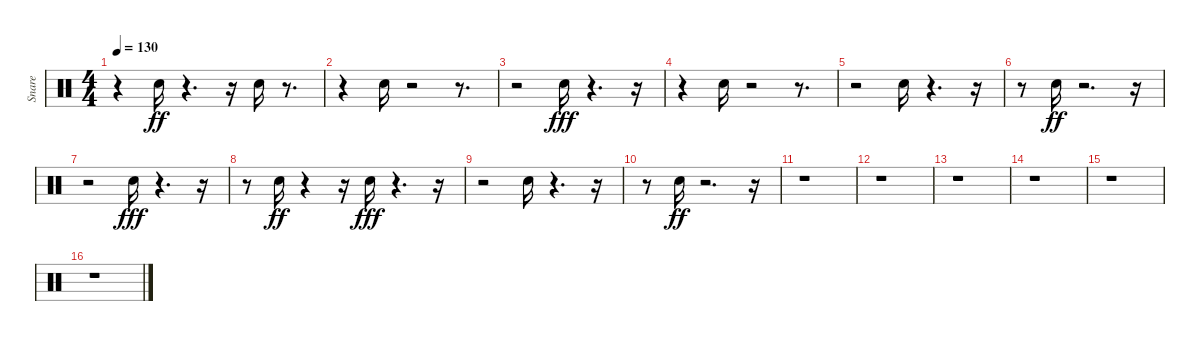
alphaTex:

\track ("Snare" "Snare") {instrument percussion}
\staff {score}
\articulation defaults
\ts (4 4)
\tempo 130
\clef neutral
\ks c
r.4{dy ff} "Snare (hit) 2".16 r.4{d} r.16 "Snare (hit) 2".16 r.8{d} |
r.4 "Snare (hit) 2".16 r.2 r.8{d} |
r.2 "Snare (hit) 2".16{dy fff} r.4{d} r.16 |
r.4 "Snare (hit) 2".16 r.2 r.8{d} |
r.2 "Snare (hit) 2".16 r.4{d} r.16 |
r.8 "Snare (hit) 2".16{dy ff} r.2{d} r.16 |
r.2 "Snare (hit) 2".16{dy fff} r.4{d} r.16 |
r.8 "Snare (hit) 2".16{dy ff} r.4 r.16 "Snare (hit) 2".16{dy fff} r.4{d} r.16 |
r.2 "Snare (hit) 2".16 r.4{d} r.16 |
r.8 "Snare (hit) 2".16{dy ff} r.2{d} r.16 |
r.1 |
r.1 |
r.1 |
r.1 |
r.1 |
r.1
